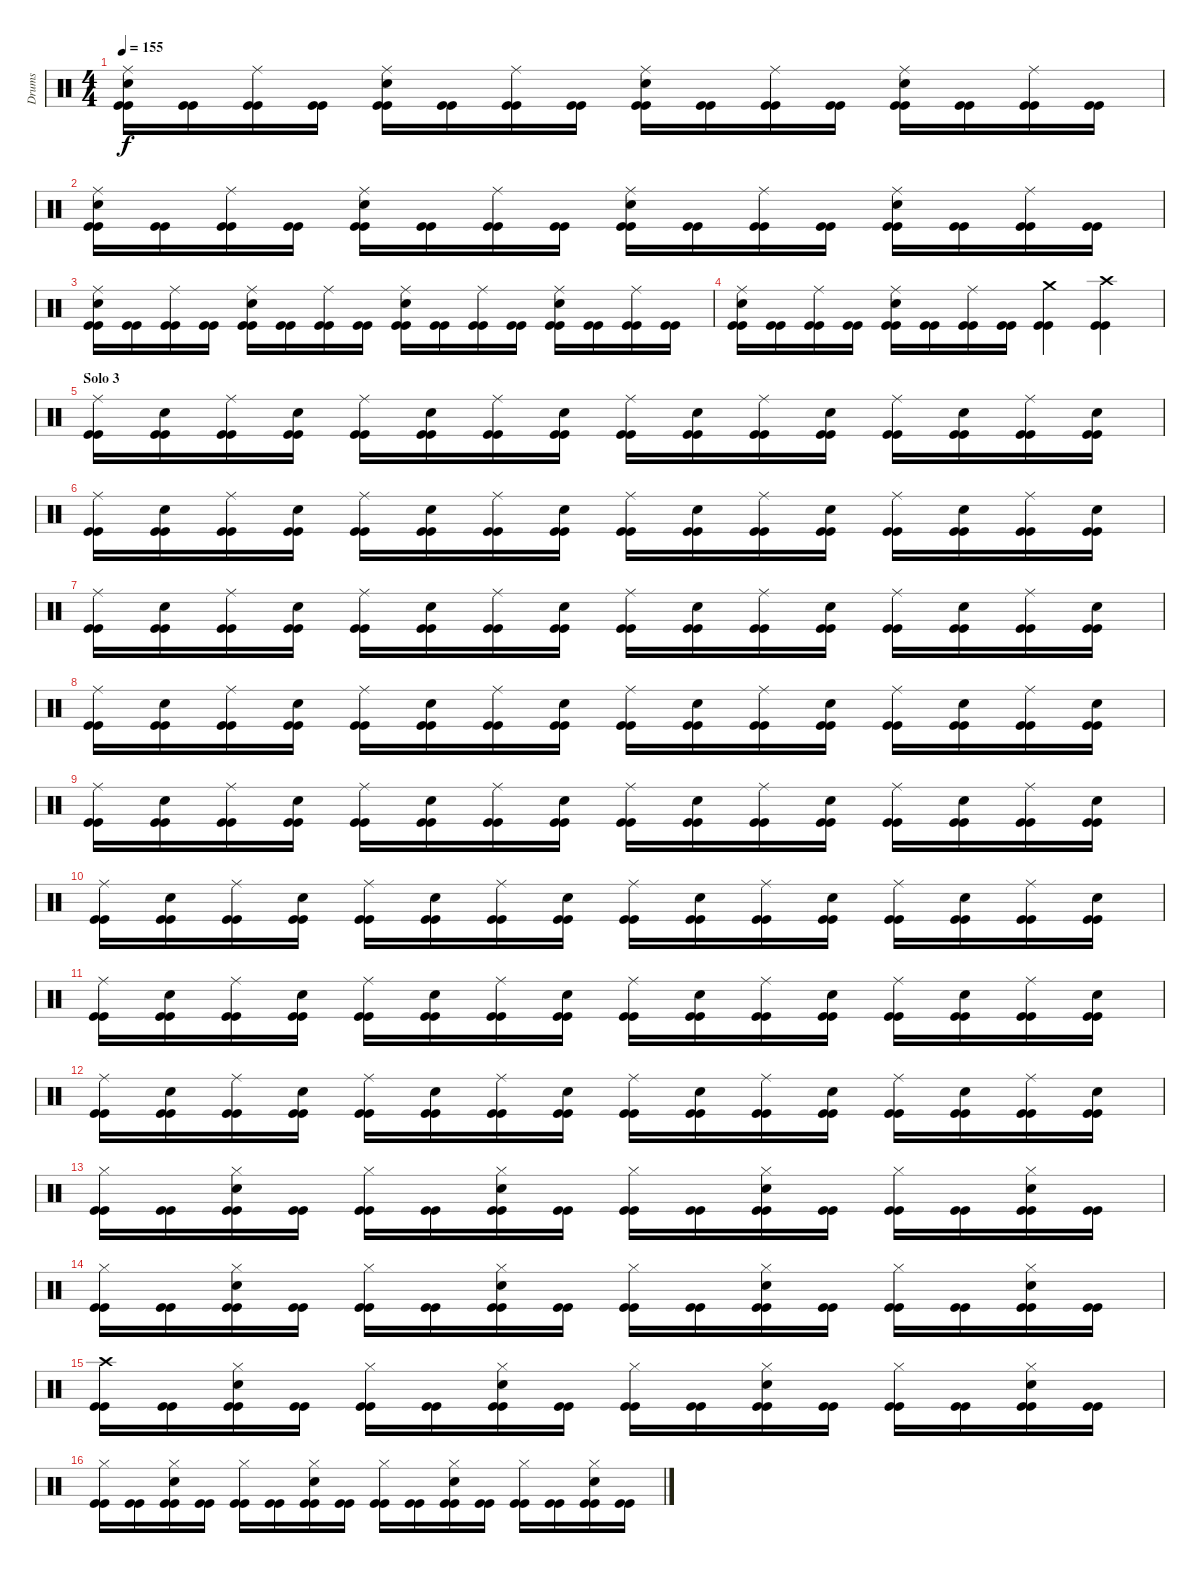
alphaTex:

\track ("Drums" "Drums") {instrument percussion}
\staff {score}
\articulation defaults
\ts (4 4)
\tempo 155
\clef neutral
\ks c
("Ride (middle)" "Electric Snare (hit)" "Kick (hit)" "Kick (hit)").16{dy f} ("Kick (hit)" "Kick (hit)").16 ("Ride (middle)" "Kick (hit)" "Kick (hit)").16 ("Kick (hit)" "Kick (hit)").16 ("Ride (middle)" "Electric Snare (hit)" "Kick (hit)" "Kick (hit)").16 ("Kick (hit)" "Kick (hit)").16 ("Ride (middle)" "Kick (hit)" "Kick (hit)").16 ("Kick (hit)" "Kick (hit)").16 ("Ride (middle)" "Electric Snare (hit)" "Kick (hit)" "Kick (hit)").16 ("Kick (hit)" "Kick (hit)").16 ("Ride (middle)" "Kick (hit)" "Kick (hit)").16 ("Kick (hit)" "Kick (hit)").16 ("Ride (middle)" "Electric Snare (hit)" "Kick (hit)" "Kick (hit)").16 ("Kick (hit)" "Kick (hit)").16 ("Ride (middle)" "Kick (hit)" "Kick (hit)").16 ("Kick (hit)" "Kick (hit)").16 |
("Ride (middle)" "Electric Snare (hit)" "Kick (hit)" "Kick (hit)").16 ("Kick (hit)" "Kick (hit)").16 ("Ride (middle)" "Kick (hit)" "Kick (hit)").16 ("Kick (hit)" "Kick (hit)").16 ("Ride (middle)" "Electric Snare (hit)" "Kick (hit)" "Kick (hit)").16 ("Kick (hit)" "Kick (hit)").16 ("Ride (middle)" "Kick (hit)" "Kick (hit)").16 ("Kick (hit)" "Kick (hit)").16 ("Ride (middle)" "Electric Snare (hit)" "Kick (hit)" "Kick (hit)").16 ("Kick (hit)" "Kick (hit)").16 ("Ride (middle)" "Kick (hit)" "Kick (hit)").16 ("Kick (hit)" "Kick (hit)").16 ("Ride (middle)" "Electric Snare (hit)" "Kick (hit)" "Kick (hit)").16 ("Kick (hit)" "Kick (hit)").16 ("Ride (middle)" "Kick (hit)" "Kick (hit)").16 ("Kick (hit)" "Kick (hit)").16 |
("Ride (middle)" "Electric Snare (hit)" "Kick (hit)" "Kick (hit)").16 ("Kick (hit)" "Kick (hit)").16 ("Ride (middle)" "Kick (hit)" "Kick (hit)").16 ("Kick (hit)" "Kick (hit)").16 ("Ride (middle)" "Electric Snare (hit)" "Kick (hit)" "Kick (hit)").16 ("Kick (hit)" "Kick (hit)").16 ("Ride (middle)" "Kick (hit)" "Kick (hit)").16 ("Kick (hit)" "Kick (hit)").16 ("Ride (middle)" "Electric Snare (hit)" "Kick (hit)" "Kick (hit)").16 ("Kick (hit)" "Kick (hit)").16 ("Ride (middle)" "Kick (hit)" "Kick (hit)").16 ("Kick (hit)" "Kick (hit)").16 ("Ride (middle)" "Electric Snare (hit)" "Kick (hit)" "Kick (hit)").16 ("Kick (hit)" "Kick (hit)").16 ("Ride (middle)" "Kick (hit)" "Kick (hit)").16 ("Kick (hit)" "Kick (hit)").16 |
("Ride (middle)" "Electric Snare (hit)" "Kick (hit)" "Kick (hit)").16 ("Kick (hit)" "Kick (hit)").16 ("Ride (middle)" "Kick (hit)" "Kick (hit)").16 ("Kick (hit)" "Kick (hit)").16 ("Ride (middle)" "Electric Snare (hit)" "Kick (hit)" "Kick (hit)").16 ("Kick (hit)" "Kick (hit)").16 ("Ride (middle)" "Kick (hit)" "Kick (hit)").16 ("Kick (hit)" "Kick (hit)").16 ("Crash medium (hit)" "Kick (hit)" "Kick (hit)").4 ("Crash high (hit)" "Kick (hit)" "Kick (hit)").4 |
\section ("" "Solo 3")
("Ride (middle)" "Kick (hit)" "Kick (hit)").16 ("Electric Snare (hit)" "Kick (hit)" "Kick (hit)").16 ("Ride (middle)" "Kick (hit)" "Kick (hit)").16 ("Electric Snare (hit)" "Kick (hit)" "Kick (hit)").16 ("Ride (middle)" "Kick (hit)" "Kick (hit)").16 ("Electric Snare (hit)" "Kick (hit)" "Kick (hit)").16 ("Ride (middle)" "Kick (hit)" "Kick (hit)").16 ("Electric Snare (hit)" "Kick (hit)" "Kick (hit)").16 ("Ride (middle)" "Kick (hit)" "Kick (hit)").16 ("Electric Snare (hit)" "Kick (hit)" "Kick (hit)").16 ("Ride (middle)" "Kick (hit)" "Kick (hit)").16 ("Electric Snare (hit)" "Kick (hit)" "Kick (hit)").16 ("Ride (middle)" "Kick (hit)" "Kick (hit)").16 ("Electric Snare (hit)" "Kick (hit)" "Kick (hit)").16 ("Ride (middle)" "Kick (hit)" "Kick (hit)").16 ("Electric Snare (hit)" "Kick (hit)" "Kick (hit)").16 |
("Ride (middle)" "Kick (hit)" "Kick (hit)").16 ("Electric Snare (hit)" "Kick (hit)" "Kick (hit)").16 ("Ride (middle)" "Kick (hit)" "Kick (hit)").16 ("Electric Snare (hit)" "Kick (hit)" "Kick (hit)").16 ("Ride (middle)" "Kick (hit)" "Kick (hit)").16 ("Electric Snare (hit)" "Kick (hit)" "Kick (hit)").16 ("Ride (middle)" "Kick (hit)" "Kick (hit)").16 ("Electric Snare (hit)" "Kick (hit)" "Kick (hit)").16 ("Ride (middle)" "Kick (hit)" "Kick (hit)").16 ("Electric Snare (hit)" "Kick (hit)" "Kick (hit)").16 ("Ride (middle)" "Kick (hit)" "Kick (hit)").16 ("Electric Snare (hit)" "Kick (hit)" "Kick (hit)").16 ("Ride (middle)" "Kick (hit)" "Kick (hit)").16 ("Electric Snare (hit)" "Kick (hit)" "Kick (hit)").16 ("Ride (middle)" "Kick (hit)" "Kick (hit)").16 ("Electric Snare (hit)" "Kick (hit)" "Kick (hit)").16 |
("Ride (middle)" "Kick (hit)" "Kick (hit)").16 ("Electric Snare (hit)" "Kick (hit)" "Kick (hit)").16 ("Ride (middle)" "Kick (hit)" "Kick (hit)").16 ("Electric Snare (hit)" "Kick (hit)" "Kick (hit)").16 ("Ride (middle)" "Kick (hit)" "Kick (hit)").16 ("Electric Snare (hit)" "Kick (hit)" "Kick (hit)").16 ("Ride (middle)" "Kick (hit)" "Kick (hit)").16 ("Electric Snare (hit)" "Kick (hit)" "Kick (hit)").16 ("Ride (middle)" "Kick (hit)" "Kick (hit)").16 ("Electric Snare (hit)" "Kick (hit)" "Kick (hit)").16 ("Ride (middle)" "Kick (hit)" "Kick (hit)").16 ("Electric Snare (hit)" "Kick (hit)" "Kick (hit)").16 ("Ride (middle)" "Kick (hit)" "Kick (hit)").16 ("Electric Snare (hit)" "Kick (hit)" "Kick (hit)").16 ("Ride (middle)" "Kick (hit)" "Kick (hit)").16 ("Electric Snare (hit)" "Kick (hit)" "Kick (hit)").16 |
("Ride (middle)" "Kick (hit)" "Kick (hit)").16 ("Electric Snare (hit)" "Kick (hit)" "Kick (hit)").16 ("Ride (middle)" "Kick (hit)" "Kick (hit)").16 ("Electric Snare (hit)" "Kick (hit)" "Kick (hit)").16 ("Ride (middle)" "Kick (hit)" "Kick (hit)").16 ("Electric Snare (hit)" "Kick (hit)" "Kick (hit)").16 ("Ride (middle)" "Kick (hit)" "Kick (hit)").16 ("Electric Snare (hit)" "Kick (hit)" "Kick (hit)").16 ("Ride (middle)" "Kick (hit)" "Kick (hit)").16 ("Electric Snare (hit)" "Kick (hit)" "Kick (hit)").16 ("Ride (middle)" "Kick (hit)" "Kick (hit)").16 ("Electric Snare (hit)" "Kick (hit)" "Kick (hit)").16 ("Ride (middle)" "Kick (hit)" "Kick (hit)").16 ("Electric Snare (hit)" "Kick (hit)" "Kick (hit)").16 ("Ride (middle)" "Kick (hit)" "Kick (hit)").16 ("Electric Snare (hit)" "Kick (hit)" "Kick (hit)").16 |
("Ride (middle)" "Kick (hit)" "Kick (hit)").16 ("Electric Snare (hit)" "Kick (hit)" "Kick (hit)").16 ("Ride (middle)" "Kick (hit)" "Kick (hit)").16 ("Electric Snare (hit)" "Kick (hit)" "Kick (hit)").16 ("Ride (middle)" "Kick (hit)" "Kick (hit)").16 ("Electric Snare (hit)" "Kick (hit)" "Kick (hit)").16 ("Ride (middle)" "Kick (hit)" "Kick (hit)").16 ("Electric Snare (hit)" "Kick (hit)" "Kick (hit)").16 ("Ride (middle)" "Kick (hit)" "Kick (hit)").16 ("Electric Snare (hit)" "Kick (hit)" "Kick (hit)").16 ("Ride (middle)" "Kick (hit)" "Kick (hit)").16 ("Electric Snare (hit)" "Kick (hit)" "Kick (hit)").16 ("Ride (middle)" "Kick (hit)" "Kick (hit)").16 ("Electric Snare (hit)" "Kick (hit)" "Kick (hit)").16 ("Ride (middle)" "Kick (hit)" "Kick (hit)").16 ("Electric Snare (hit)" "Kick (hit)" "Kick (hit)").16 |
("Ride (middle)" "Kick (hit)" "Kick (hit)").16 ("Electric Snare (hit)" "Kick (hit)" "Kick (hit)").16 ("Ride (middle)" "Kick (hit)" "Kick (hit)").16 ("Electric Snare (hit)" "Kick (hit)" "Kick (hit)").16 ("Ride (middle)" "Kick (hit)" "Kick (hit)").16 ("Electric Snare (hit)" "Kick (hit)" "Kick (hit)").16 ("Ride (middle)" "Kick (hit)" "Kick (hit)").16 ("Electric Snare (hit)" "Kick (hit)" "Kick (hit)").16 ("Ride (middle)" "Kick (hit)" "Kick (hit)").16 ("Electric Snare (hit)" "Kick (hit)" "Kick (hit)").16 ("Ride (middle)" "Kick (hit)" "Kick (hit)").16 ("Electric Snare (hit)" "Kick (hit)" "Kick (hit)").16 ("Ride (middle)" "Kick (hit)" "Kick (hit)").16 ("Electric Snare (hit)" "Kick (hit)" "Kick (hit)").16 ("Ride (middle)" "Kick (hit)" "Kick (hit)").16 ("Electric Snare (hit)" "Kick (hit)" "Kick (hit)").16 |
("Ride (middle)" "Kick (hit)" "Kick (hit)").16 ("Electric Snare (hit)" "Kick (hit)" "Kick (hit)").16 ("Ride (middle)" "Kick (hit)" "Kick (hit)").16 ("Electric Snare (hit)" "Kick (hit)" "Kick (hit)").16 ("Ride (middle)" "Kick (hit)" "Kick (hit)").16 ("Electric Snare (hit)" "Kick (hit)" "Kick (hit)").16 ("Ride (middle)" "Kick (hit)" "Kick (hit)").16 ("Electric Snare (hit)" "Kick (hit)" "Kick (hit)").16 ("Ride (middle)" "Kick (hit)" "Kick (hit)").16 ("Electric Snare (hit)" "Kick (hit)" "Kick (hit)").16 ("Ride (middle)" "Kick (hit)" "Kick (hit)").16 ("Electric Snare (hit)" "Kick (hit)" "Kick (hit)").16 ("Ride (middle)" "Kick (hit)" "Kick (hit)").16 ("Electric Snare (hit)" "Kick (hit)" "Kick (hit)").16 ("Ride (middle)" "Kick (hit)" "Kick (hit)").16 ("Electric Snare (hit)" "Kick (hit)" "Kick (hit)").16 |
("Ride (middle)" "Kick (hit)" "Kick (hit)").16 ("Electric Snare (hit)" "Kick (hit)" "Kick (hit)").16 ("Ride (middle)" "Kick (hit)" "Kick (hit)").16 ("Electric Snare (hit)" "Kick (hit)" "Kick (hit)").16 ("Ride (middle)" "Kick (hit)" "Kick (hit)").16 ("Electric Snare (hit)" "Kick (hit)" "Kick (hit)").16 ("Ride (middle)" "Kick (hit)" "Kick (hit)").16 ("Electric Snare (hit)" "Kick (hit)" "Kick (hit)").16 ("Ride (middle)" "Kick (hit)" "Kick (hit)").16 ("Electric Snare (hit)" "Kick (hit)" "Kick (hit)").16 ("Ride (middle)" "Kick (hit)" "Kick (hit)").16 ("Electric Snare (hit)" "Kick (hit)" "Kick (hit)").16 ("Ride (middle)" "Kick (hit)" "Kick (hit)").16 ("Electric Snare (hit)" "Kick (hit)" "Kick (hit)").16 ("Ride (middle)" "Kick (hit)" "Kick (hit)").16 ("Electric Snare (hit)" "Kick (hit)" "Kick (hit)").16 |
("Hi-Hat (closed)" "Kick (hit)" "Kick (hit)").16 ("Kick (hit)" "Kick (hit)").16 ("Hi-Hat (closed)" "Snare (hit) 2" "Kick (hit)" "Kick (hit)").16 ("Kick (hit)" "Kick (hit)").16 ("Hi-Hat (closed)" "Kick (hit)" "Kick (hit)").16 ("Kick (hit)" "Kick (hit)").16 ("Hi-Hat (closed)" "Snare (hit) 2" "Kick (hit)" "Kick (hit)").16 ("Kick (hit)" "Kick (hit)").16 ("Hi-Hat (closed)" "Kick (hit)" "Kick (hit)").16 ("Kick (hit)" "Kick (hit)").16 ("Hi-Hat (closed)" "Snare (hit) 2" "Kick (hit)" "Kick (hit)").16 ("Kick (hit)" "Kick (hit)").16 ("Hi-Hat (closed)" "Kick (hit)" "Kick (hit)").16 ("Kick (hit)" "Kick (hit)").16 ("Hi-Hat (closed)" "Snare (hit) 2" "Kick (hit)" "Kick (hit)").16 ("Kick (hit)" "Kick (hit)").16 |
("Hi-Hat (closed)" "Kick (hit)" "Kick (hit)").16 ("Kick (hit)" "Kick (hit)").16 ("Hi-Hat (closed)" "Snare (hit) 2" "Kick (hit)" "Kick (hit)").16 ("Kick (hit)" "Kick (hit)").16 ("Hi-Hat (closed)" "Kick (hit)" "Kick (hit)").16 ("Kick (hit)" "Kick (hit)").16 ("Hi-Hat (closed)" "Snare (hit) 2" "Kick (hit)" "Kick (hit)").16 ("Kick (hit)" "Kick (hit)").16 ("Hi-Hat (closed)" "Kick (hit)" "Kick (hit)").16 ("Kick (hit)" "Kick (hit)").16 ("Hi-Hat (closed)" "Snare (hit) 2" "Kick (hit)" "Kick (hit)").16 ("Kick (hit)" "Kick (hit)").16 ("Hi-Hat (closed)" "Kick (hit)" "Kick (hit)").16 ("Kick (hit)" "Kick (hit)").16 ("Hi-Hat (closed)" "Snare (hit) 2" "Kick (hit)" "Kick (hit)").16 ("Kick (hit)" "Kick (hit)").16 |
("Crash high (hit)" "Kick (hit)" "Kick (hit)").16 ("Kick (hit)" "Kick (hit)").16 ("Hi-Hat (closed)" "Snare (hit) 2" "Kick (hit)" "Kick (hit)").16 ("Kick (hit)" "Kick (hit)").16 ("Hi-Hat (closed)" "Kick (hit)" "Kick (hit)").16 ("Kick (hit)" "Kick (hit)").16 ("Hi-Hat (closed)" "Snare (hit) 2" "Kick (hit)" "Kick (hit)").16 ("Kick (hit)" "Kick (hit)").16 ("Hi-Hat (closed)" "Kick (hit)" "Kick (hit)").16 ("Kick (hit)" "Kick (hit)").16 ("Hi-Hat (closed)" "Snare (hit) 2" "Kick (hit)" "Kick (hit)").16 ("Kick (hit)" "Kick (hit)").16 ("Hi-Hat (closed)" "Kick (hit)" "Kick (hit)").16 ("Kick (hit)" "Kick (hit)").16 ("Hi-Hat (closed)" "Snare (hit) 2" "Kick (hit)" "Kick (hit)").16 ("Kick (hit)" "Kick (hit)").16 |
("Hi-Hat (closed)" "Kick (hit)" "Kick (hit)").16 ("Kick (hit)" "Kick (hit)").16 ("Hi-Hat (closed)" "Snare (hit) 2" "Kick (hit)" "Kick (hit)").16 ("Kick (hit)" "Kick (hit)").16 ("Hi-Hat (closed)" "Kick (hit)" "Kick (hit)").16 ("Kick (hit)" "Kick (hit)").16 ("Hi-Hat (closed)" "Snare (hit) 2" "Kick (hit)" "Kick (hit)").16 ("Kick (hit)" "Kick (hit)").16 ("Hi-Hat (closed)" "Kick (hit)" "Kick (hit)").16 ("Kick (hit)" "Kick (hit)").16 ("Hi-Hat (closed)" "Snare (hit) 2" "Kick (hit)" "Kick (hit)").16 ("Kick (hit)" "Kick (hit)").16 ("Hi-Hat (closed)" "Kick (hit)" "Kick (hit)").16 ("Kick (hit)" "Kick (hit)").16 ("Hi-Hat (closed)" "Snare (hit) 2" "Kick (hit)" "Kick (hit)").16 ("Kick (hit)" "Kick (hit)").16
